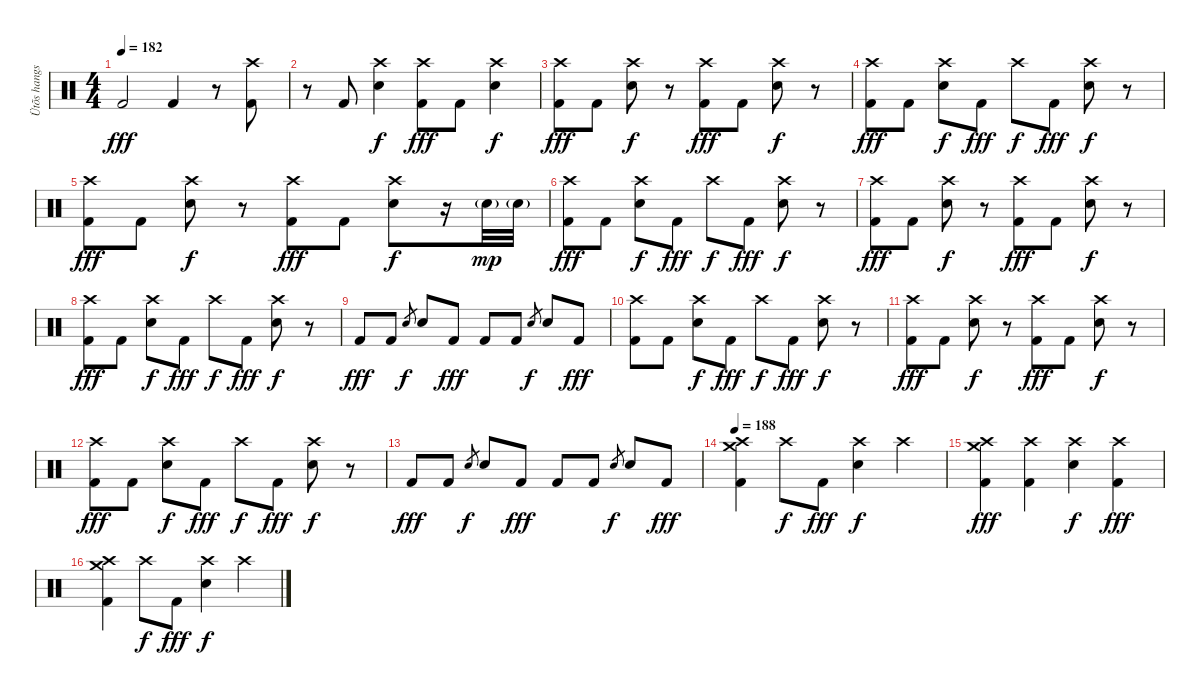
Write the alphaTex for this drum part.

\track ("Ütõs hangszer" "Ütõs hangs") {instrument percussion}
\staff {score}
\articulation defaults
\ts (4 4)
\tempo 182
\clef neutral
\ks c "Kick (hit) 2".2{dy fff} "Kick (hit) 2".4
r.8 ("Crash high (hit)" "Kick (hit) 2").8 |
r.8 "Kick (hit) 2".8 ("Crash high (hit)" "Electric Snare (hit)").4{dy f} ("Crash high (hit)" "Kick (hit) 2").8{dy fff} "Kick (hit) 2".8 ("Crash high (hit)" "Electric Snare (hit)").4{dy f} |
("Crash high (hit)" "Kick (hit) 2").8{dy fff} "Kick (hit) 2".8 ("Crash high (hit)" "Electric Snare (hit)").8{dy f} r.8 ("Crash high (hit)" "Kick (hit) 2").8{dy fff} "Kick (hit) 2".8 ("Crash high (hit)" "Electric Snare (hit)").8{dy f} r.8 |
("Crash high (hit)" "Kick (hit) 2").8{dy fff} "Kick (hit) 2".8 ("Crash high (hit)" "Electric Snare (hit)").8{dy f} "Kick (hit) 2".8{dy fff} "Crash high (hit)".8{dy f} "Kick (hit) 2".8{dy fff} ("Crash high (hit)" "Electric Snare (hit)").8{dy f} r.8 |
("Crash high (hit)" "Kick (hit) 2").8{dy fff} "Kick (hit) 2".8 ("Crash high (hit)" "Electric Snare (hit)").8{dy f} r.8 ("Crash high (hit)" "Kick (hit) 2").8{dy fff} "Kick (hit) 2".8 ("Crash high (hit)" "Electric Snare (hit)").8{dy f} r.16 "Electric Snare (hit)"{g}.32{dy mp} "Electric Snare (hit)"{g}.32 |
("Crash high (hit)" "Kick (hit) 2").8{dy fff} "Kick (hit) 2".8 ("Crash high (hit)" "Electric Snare (hit)").8{dy f} "Kick (hit) 2".8{dy fff} "Crash high (hit)".8{dy f} "Kick (hit) 2".8{dy fff} ("Crash high (hit)" "Electric Snare (hit)").8{dy f} r.8 |
("Crash high (hit)" "Kick (hit) 2").8{dy fff} "Kick (hit) 2".8 ("Crash high (hit)" "Electric Snare (hit)").8{dy f} r.8 ("Crash high (hit)" "Kick (hit) 2").8{dy fff} "Kick (hit) 2".8 ("Crash high (hit)" "Electric Snare (hit)").8{dy f} r.8 |
("Crash high (hit)" "Kick (hit) 2").8{dy fff} "Kick (hit) 2".8 ("Crash high (hit)" "Electric Snare (hit)").8{dy f} "Kick (hit) 2".8{dy fff} "Crash high (hit)".8{dy f} "Kick (hit) 2".8{dy fff} ("Crash high (hit)" "Electric Snare (hit)").8{dy f} r.8 |
"Kick (hit) 2".8{dy fff} "Kick (hit) 2".8 "Electric Snare (hit)".8{gr dy f} "Electric Snare (hit)".8 "Kick (hit) 2".8{dy fff} "Kick (hit) 2".8 "Kick (hit) 2".8 "Electric Snare (hit)".8{gr dy f} "Electric Snare (hit)".8 "Kick (hit) 2".8{dy fff} |
("Crash high (hit)" "Kick (hit) 2").8 "Kick (hit) 2".8 ("Crash high (hit)" "Electric Snare (hit)").8{dy f} "Kick (hit) 2".8{dy fff} "Crash high (hit)".8{dy f} "Kick (hit) 2".8{dy fff} ("Crash high (hit)" "Electric Snare (hit)").8{dy f} r.8 |
("Crash high (hit)" "Kick (hit) 2").8{dy fff} "Kick (hit) 2".8 ("Crash high (hit)" "Electric Snare (hit)").8{dy f} r.8 ("Crash high (hit)" "Kick (hit) 2").8{dy fff} "Kick (hit) 2".8 ("Crash high (hit)" "Electric Snare (hit)").8{dy f} r.8 |
("Crash high (hit)" "Kick (hit) 2").8{dy fff} "Kick (hit) 2".8 ("Crash high (hit)" "Electric Snare (hit)").8{dy f} "Kick (hit) 2".8{dy fff} "Crash high (hit)".8{dy f} "Kick (hit) 2".8{dy fff} ("Crash high (hit)" "Electric Snare (hit)").8{dy f} r.8 |
"Kick (hit) 2".8{dy fff} "Kick (hit) 2".8 "Electric Snare (hit)".8{gr dy f} "Electric Snare (hit)".8 "Kick (hit) 2".8{dy fff} "Kick (hit) 2".8 "Kick (hit) 2".8 "Electric Snare (hit)".8{gr dy f} "Electric Snare (hit)".8 "Kick (hit) 2".8{dy fff} |
\tempo 188
("Crash high (hit)" "Crash medium (hit)" "Kick (hit) 2").4 "Crash high (hit)".8{dy f} "Kick (hit) 2".8{dy fff} ("Crash high (hit)" "Electric Snare (hit)").4{dy f} "Crash high (hit)".4 |
("Crash high (hit)" "Crash medium (hit)" "Kick (hit) 2").4{dy fff} ("Crash high (hit)" "Kick (hit) 2").4 ("Crash high (hit)" "Electric Snare (hit)").4{dy f} ("Crash high (hit)" "Kick (hit) 2").4{dy fff} |
("Crash high (hit)" "Crash medium (hit)" "Kick (hit) 2").4 "Crash high (hit)".8{dy f} "Kick (hit) 2".8{dy fff} ("Crash high (hit)" "Electric Snare (hit)").4{dy f} "Crash high (hit)".4
